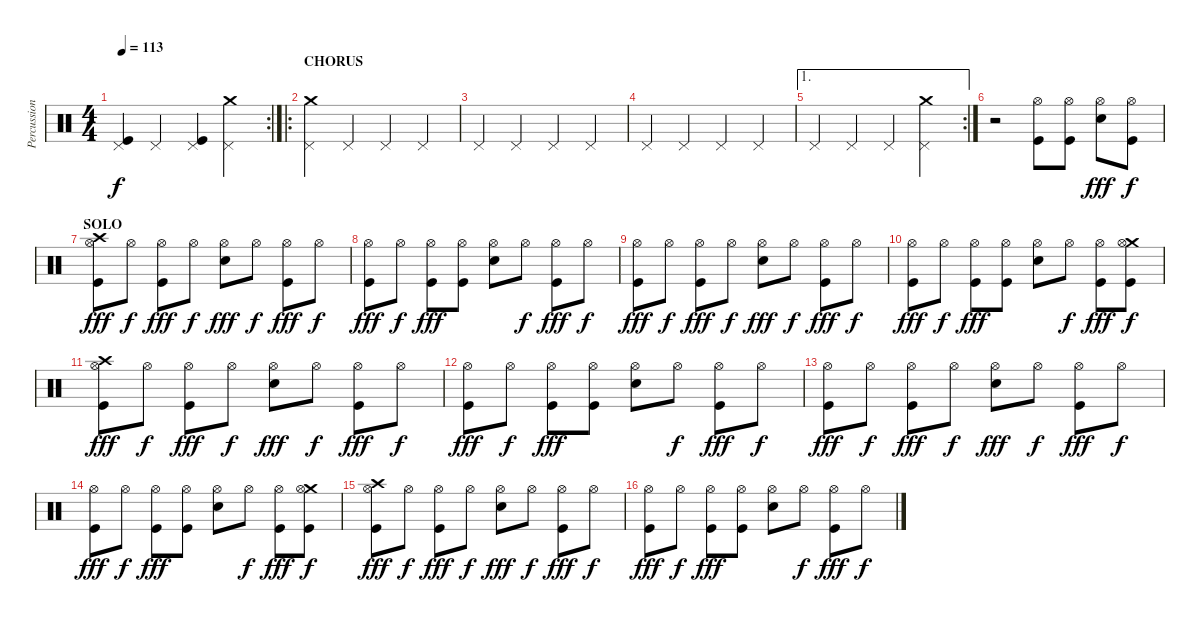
\track ("Percussion" "Percussion") {instrument percussion}
\staff {score}
\articulation defaults
\rc 2
\ts (4 4)
\tempo 113
\clef neutral
\ks c
("Kick (hit)" "Pedal Hi-Hat (hit)").4{dy f} "Pedal Hi-Hat (hit)".4 ("Kick (hit)" "Pedal Hi-Hat (hit)").4 ("Crash medium (hit)" "Pedal Hi-Hat (hit)").4 |
\ro
\section ("" "CHORUS")
("Crash medium (hit)" "Pedal Hi-Hat (hit)").4 "Pedal Hi-Hat (hit)".4 "Pedal Hi-Hat (hit)".4 "Pedal Hi-Hat (hit)".4 |
"Pedal Hi-Hat (hit)".4 "Pedal Hi-Hat (hit)".4 "Pedal Hi-Hat (hit)".4 "Pedal Hi-Hat (hit)".4 |
"Pedal Hi-Hat (hit)".4 "Pedal Hi-Hat (hit)".4 "Pedal Hi-Hat (hit)".4 "Pedal Hi-Hat (hit)".4 |
\ae 1
\rc 2 "Pedal Hi-Hat (hit)".4 "Pedal Hi-Hat (hit)".4 "Pedal Hi-Hat (hit)".4
("Crash medium (hit)" "Pedal Hi-Hat (hit)").4 |
r.2 ("Kick (hit)" "Hi-Hat (open)").8 ("Kick (hit)" "Hi-Hat (open)").8 ("Snare (hit) 2" "Hi-Hat (open)").8{dy fff} ("Kick (hit)" "Hi-Hat (open)").8{dy f} |
\section ("" "SOLO")
("Crash high (hit)" "Kick (hit)" "Hi-Hat (open)").8{dy fff} "Hi-Hat (open)".8{dy f} ("Kick (hit)" "Hi-Hat (open)").8{dy fff} "Hi-Hat (open)".8{dy f} ("Snare (hit) 2" "Hi-Hat (open)").8{dy fff} "Hi-Hat (open)".8{dy f} ("Kick (hit)" "Hi-Hat (open)").8{dy fff} "Hi-Hat (open)".8{dy f} |
("Kick (hit)" "Hi-Hat (open)").8{dy fff} "Hi-Hat (open)".8{dy f} ("Kick (hit)" "Hi-Hat (open)").8{dy fff} ("Kick (hit)" "Hi-Hat (open)").8 ("Snare (hit) 2" "Hi-Hat (open)").8 "Hi-Hat (open)".8{dy f} ("Kick (hit)" "Hi-Hat (open)").8{dy fff} "Hi-Hat (open)".8{dy f} |
("Kick (hit)" "Hi-Hat (open)").8{dy fff} "Hi-Hat (open)".8{dy f} ("Kick (hit)" "Hi-Hat (open)").8{dy fff} "Hi-Hat (open)".8{dy f} ("Snare (hit) 2" "Hi-Hat (open)").8{dy fff} "Hi-Hat (open)".8{dy f} ("Kick (hit)" "Hi-Hat (open)").8{dy fff} "Hi-Hat (open)".8{dy f} |
("Kick (hit)" "Hi-Hat (open)").8{dy fff} "Hi-Hat (open)".8{dy f} ("Kick (hit)" "Hi-Hat (open)").8{dy fff} ("Kick (hit)" "Hi-Hat (open)").8 ("Snare (hit) 2" "Hi-Hat (open)").8 "Hi-Hat (open)".8{dy f} ("Kick (hit)" "Hi-Hat (open)").8{dy fff} ("Crash medium (hit)" "Kick (hit)" "Hi-Hat (open)").8{dy f} |
("Crash high (hit)" "Kick (hit)" "Hi-Hat (open)").8{dy fff} "Hi-Hat (open)".8{dy f} ("Kick (hit)" "Hi-Hat (open)").8{dy fff} "Hi-Hat (open)".8{dy f} ("Snare (hit) 2" "Hi-Hat (open)").8{dy fff} "Hi-Hat (open)".8{dy f} ("Kick (hit)" "Hi-Hat (open)").8{dy fff} "Hi-Hat (open)".8{dy f} |
("Kick (hit)" "Hi-Hat (open)").8{dy fff} "Hi-Hat (open)".8{dy f} ("Kick (hit)" "Hi-Hat (open)").8{dy fff} ("Kick (hit)" "Hi-Hat (open)").8 ("Snare (hit) 2" "Hi-Hat (open)").8 "Hi-Hat (open)".8{dy f} ("Kick (hit)" "Hi-Hat (open)").8{dy fff} "Hi-Hat (open)".8{dy f} |
("Kick (hit)" "Hi-Hat (open)").8{dy fff} "Hi-Hat (open)".8{dy f} ("Kick (hit)" "Hi-Hat (open)").8{dy fff} "Hi-Hat (open)".8{dy f} ("Snare (hit) 2" "Hi-Hat (open)").8{dy fff} "Hi-Hat (open)".8{dy f} ("Kick (hit)" "Hi-Hat (open)").8{dy fff} "Hi-Hat (open)".8{dy f} |
("Kick (hit)" "Hi-Hat (open)").8{dy fff} "Hi-Hat (open)".8{dy f} ("Kick (hit)" "Hi-Hat (open)").8{dy fff} ("Kick (hit)" "Hi-Hat (open)").8 ("Snare (hit) 2" "Hi-Hat (open)").8 "Hi-Hat (open)".8{dy f} ("Kick (hit)" "Hi-Hat (open)").8{dy fff} ("Crash medium (hit)" "Kick (hit)" "Hi-Hat (open)").8{dy f} |
("Crash high (hit)" "Kick (hit)" "Hi-Hat (open)").8{dy fff} "Hi-Hat (open)".8{dy f} ("Kick (hit)" "Hi-Hat (open)").8{dy fff} "Hi-Hat (open)".8{dy f} ("Snare (hit) 2" "Hi-Hat (open)").8{dy fff} "Hi-Hat (open)".8{dy f} ("Kick (hit)" "Hi-Hat (open)").8{dy fff} "Hi-Hat (open)".8{dy f} |
("Kick (hit)" "Hi-Hat (open)").8{dy fff} "Hi-Hat (open)".8{dy f} ("Kick (hit)" "Hi-Hat (open)").8{dy fff} ("Kick (hit)" "Hi-Hat (open)").8 ("Snare (hit) 2" "Hi-Hat (open)").8 "Hi-Hat (open)".8{dy f} ("Kick (hit)" "Hi-Hat (open)").8{dy fff} "Hi-Hat (open)".8{dy f}
